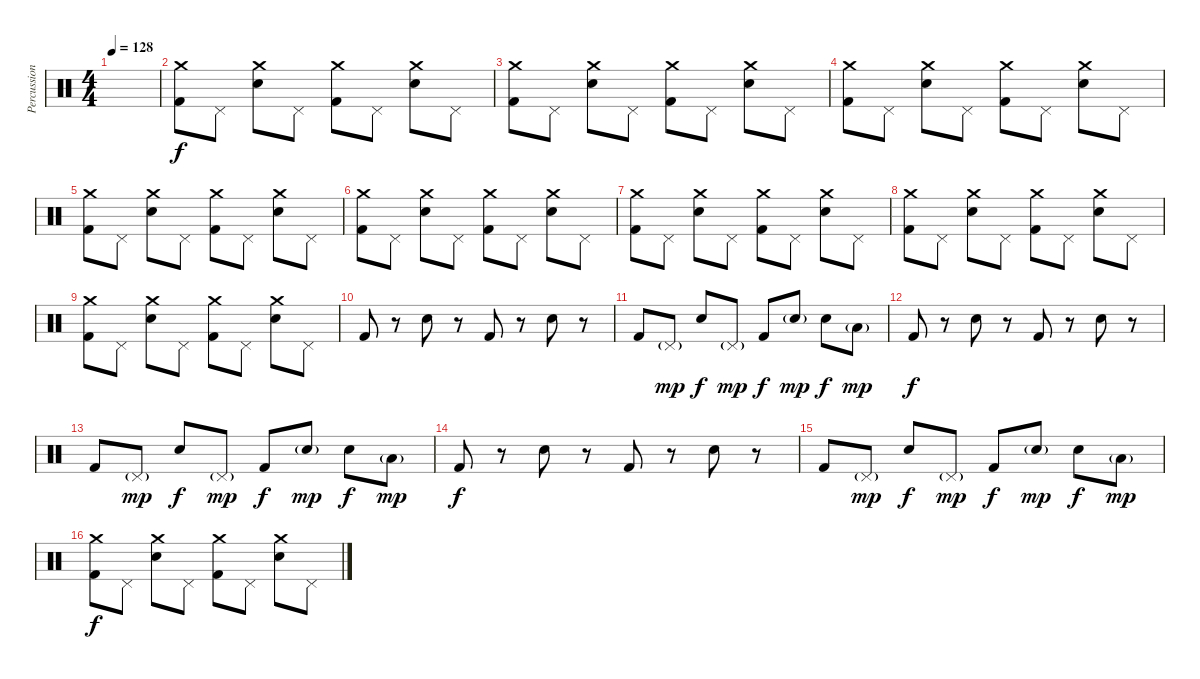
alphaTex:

\track ("Percussions" "Percussion") {instrument percussion}
\staff {score}
\articulation defaults
\ts (4 4)
\tempo 128
\clef neutral
\ks c
|
("Kick (hit) 2" "Crash medium (hit)").8{dy f} "Pedal Hi-Hat (hit)".8 ("Electric Snare (hit)" "Crash medium (hit)").8 "Pedal Hi-Hat (hit)".8 ("Kick (hit) 2" "Crash medium (hit)").8 "Pedal Hi-Hat (hit)".8 ("Electric Snare (hit)" "Crash medium (hit)").8 "Pedal Hi-Hat (hit)".8 |
("Kick (hit) 2" "Crash medium (hit)").8 "Pedal Hi-Hat (hit)".8 ("Electric Snare (hit)" "Crash medium (hit)").8 "Pedal Hi-Hat (hit)".8 ("Kick (hit) 2" "Crash medium (hit)").8 "Pedal Hi-Hat (hit)".8 ("Electric Snare (hit)" "Crash medium (hit)").8 "Pedal Hi-Hat (hit)".8 |
("Kick (hit) 2" "Crash medium (hit)").8 "Pedal Hi-Hat (hit)".8 ("Electric Snare (hit)" "Crash medium (hit)").8 "Pedal Hi-Hat (hit)".8 ("Kick (hit) 2" "Crash medium (hit)").8 "Pedal Hi-Hat (hit)".8 ("Electric Snare (hit)" "Crash medium (hit)").8 "Pedal Hi-Hat (hit)".8 |
("Kick (hit) 2" "Crash medium (hit)").8 "Pedal Hi-Hat (hit)".8 ("Electric Snare (hit)" "Crash medium (hit)").8 "Pedal Hi-Hat (hit)".8 ("Kick (hit) 2" "Crash medium (hit)").8 "Pedal Hi-Hat (hit)".8 ("Electric Snare (hit)" "Crash medium (hit)").8 "Pedal Hi-Hat (hit)".8 |
("Kick (hit) 2" "Crash medium (hit)").8 "Pedal Hi-Hat (hit)".8 ("Electric Snare (hit)" "Crash medium (hit)").8 "Pedal Hi-Hat (hit)".8 ("Kick (hit) 2" "Crash medium (hit)").8 "Pedal Hi-Hat (hit)".8 ("Electric Snare (hit)" "Crash medium (hit)").8 "Pedal Hi-Hat (hit)".8 |
("Kick (hit) 2" "Crash medium (hit)").8 "Pedal Hi-Hat (hit)".8 ("Electric Snare (hit)" "Crash medium (hit)").8 "Pedal Hi-Hat (hit)".8 ("Kick (hit) 2" "Crash medium (hit)").8 "Pedal Hi-Hat (hit)".8 ("Electric Snare (hit)" "Crash medium (hit)").8 "Pedal Hi-Hat (hit)".8 |
("Kick (hit) 2" "Crash medium (hit)").8 "Pedal Hi-Hat (hit)".8 ("Electric Snare (hit)" "Crash medium (hit)").8 "Pedal Hi-Hat (hit)".8 ("Kick (hit) 2" "Crash medium (hit)").8 "Pedal Hi-Hat (hit)".8 ("Electric Snare (hit)" "Crash medium (hit)").8 "Pedal Hi-Hat (hit)".8 |
("Kick (hit) 2" "Crash medium (hit)").8 "Pedal Hi-Hat (hit)".8 ("Electric Snare (hit)" "Crash medium (hit)").8 "Pedal Hi-Hat (hit)".8 ("Kick (hit) 2" "Crash medium (hit)").8 "Pedal Hi-Hat (hit)".8 ("Electric Snare (hit)" "Crash medium (hit)").8 "Pedal Hi-Hat (hit)".8 |
"Kick (hit) 2".8 r.8 "Electric Snare (hit)".8 r.8 "Kick (hit) 2".8 r.8 "Electric Snare (hit)".8 r.8 |
"Kick (hit) 2".8 "Pedal Hi-Hat (hit)"{g}.8{dy mp} "Electric Snare (hit)".8{dy f} "Pedal Hi-Hat (hit)"{g}.8{dy mp} "Kick (hit) 2".8{dy f} "Electric Snare (hit)"{g}.8{dy mp} "Electric Snare (hit)".8{dy f} "Low Tom (hit)"{g}.8{dy mp} |
"Kick (hit) 2".8{dy f} r.8 "Electric Snare (hit)".8 r.8 "Kick (hit) 2".8 r.8 "Electric Snare (hit)".8 r.8 |
"Kick (hit) 2".8 "Pedal Hi-Hat (hit)"{g}.8{dy mp} "Electric Snare (hit)".8{dy f} "Pedal Hi-Hat (hit)"{g}.8{dy mp} "Kick (hit) 2".8{dy f} "Electric Snare (hit)"{g}.8{dy mp} "Electric Snare (hit)".8{dy f} "Low Tom (hit)"{g}.8{dy mp} |
"Kick (hit) 2".8{dy f} r.8 "Electric Snare (hit)".8 r.8 "Kick (hit) 2".8 r.8 "Electric Snare (hit)".8 r.8 |
"Kick (hit) 2".8 "Pedal Hi-Hat (hit)"{g}.8{dy mp} "Electric Snare (hit)".8{dy f} "Pedal Hi-Hat (hit)"{g}.8{dy mp} "Kick (hit) 2".8{dy f} "Electric Snare (hit)"{g}.8{dy mp} "Electric Snare (hit)".8{dy f} "Low Tom (hit)"{g}.8{dy mp} |
("Kick (hit) 2" "Crash medium (hit)").8{dy f} "Pedal Hi-Hat (hit)".8 ("Electric Snare (hit)" "Crash medium (hit)").8 "Pedal Hi-Hat (hit)".8 ("Kick (hit) 2" "Crash medium (hit)").8 "Pedal Hi-Hat (hit)".8 ("Electric Snare (hit)" "Crash medium (hit)").8 "Pedal Hi-Hat (hit)".8
